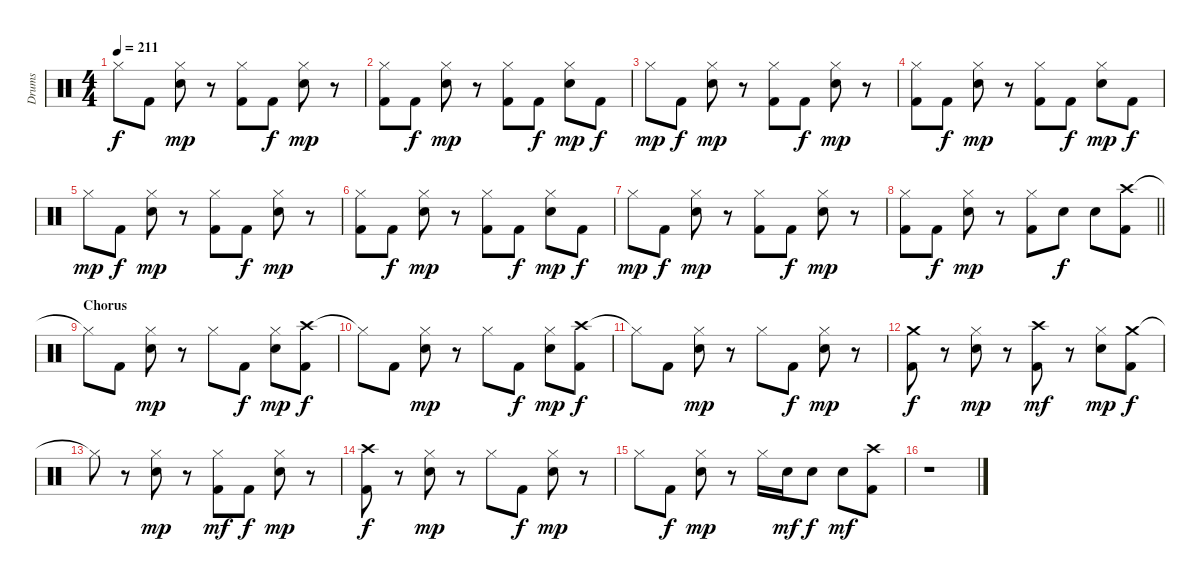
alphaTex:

\track ("Drums" "Drums") {instrument percussion}
\staff {score}
\articulation defaults
\ts (4 4)
\tempo 211
\clef neutral
\ks c "Hi-Hat (closed)"{t}.8{dy f} "Kick (hit) 2".8
("Hi-Hat (closed)" "Snare (hit) 2").8{dy mp} r.8 ("Hi-Hat (closed)" "Kick (hit) 2").8 "Kick (hit) 2".8{dy f} ("Hi-Hat (closed)" "Snare (hit) 2").8{dy mp} r.8 |
("Hi-Hat (closed)" "Kick (hit) 2").8 "Kick (hit) 2".8{dy f} ("Hi-Hat (closed)" "Snare (hit) 2").8{dy mp} r.8 ("Hi-Hat (closed)" "Kick (hit) 2").8 "Kick (hit) 2".8{dy f} ("Hi-Hat (closed)" "Snare (hit) 2").8{dy mp} "Kick (hit) 2".8{dy f} |
"Hi-Hat (closed)".8{dy mp} "Kick (hit) 2".8{dy f} ("Hi-Hat (closed)" "Snare (hit) 2").8{dy mp} r.8 ("Hi-Hat (closed)" "Kick (hit) 2").8 "Kick (hit) 2".8{dy f} ("Hi-Hat (closed)" "Snare (hit) 2").8{dy mp} r.8 |
("Hi-Hat (closed)" "Kick (hit) 2").8 "Kick (hit) 2".8{dy f} ("Hi-Hat (closed)" "Snare (hit) 2").8{dy mp} r.8 ("Hi-Hat (closed)" "Kick (hit) 2").8 "Kick (hit) 2".8{dy f} ("Hi-Hat (closed)" "Snare (hit) 2").8{dy mp} "Kick (hit) 2".8{dy f} |
"Hi-Hat (closed)".8{dy mp} "Kick (hit) 2".8{dy f} ("Hi-Hat (closed)" "Snare (hit) 2").8{dy mp} r.8 ("Hi-Hat (closed)" "Kick (hit) 2").8 "Kick (hit) 2".8{dy f} ("Hi-Hat (closed)" "Snare (hit) 2").8{dy mp} r.8 |
("Hi-Hat (closed)" "Kick (hit) 2").8 "Kick (hit) 2".8{dy f} ("Hi-Hat (closed)" "Snare (hit) 2").8{dy mp} r.8 ("Hi-Hat (closed)" "Kick (hit) 2").8 "Kick (hit) 2".8{dy f} ("Hi-Hat (closed)" "Snare (hit) 2").8{dy mp} "Kick (hit) 2".8{dy f} |
"Hi-Hat (closed)".8{dy mp} "Kick (hit) 2".8{dy f} ("Hi-Hat (closed)" "Snare (hit) 2").8{dy mp} r.8 ("Hi-Hat (closed)" "Kick (hit) 2").8 "Kick (hit) 2".8{dy f} ("Hi-Hat (closed)" "Snare (hit) 2").8{dy mp} r.8 |
\barLineRight lightlight
("Hi-Hat (closed)" "Kick (hit) 2").8 "Kick (hit) 2".8{dy f} ("Hi-Hat (closed)" "Snare (hit) 2").8{dy mp} r.8 ("Hi-Hat (closed)" "Kick (hit) 2").8 "Snare (hit) 2".8{dy f} "Snare (hit) 2".8 ("Crash high (hit)" "Kick (hit) 2").8 |
\section ("" "Chorus")
"Hi-Hat (closed)"{t}.8 "Kick (hit) 2".8 ("Hi-Hat (closed)" "Snare (hit) 2").8{dy mp} r.8 "Hi-Hat (closed)".8 "Kick (hit) 2".8{dy f} ("Hi-Hat (closed)" "Snare (hit) 2").8{dy mp} ("Crash high (hit)" "Kick (hit) 2").8{dy f} |
"Hi-Hat (closed)"{t}.8 "Kick (hit) 2".8 ("Hi-Hat (closed)" "Snare (hit) 2").8{dy mp} r.8 "Hi-Hat (closed)".8 "Kick (hit) 2".8{dy f} ("Hi-Hat (closed)" "Snare (hit) 2").8{dy mp} ("Crash high (hit)" "Kick (hit) 2").8{dy f} |
"Hi-Hat (closed)"{t}.8 "Kick (hit) 2".8 ("Hi-Hat (closed)" "Snare (hit) 2").8{dy mp} r.8 "Hi-Hat (closed)".8 "Kick (hit) 2".8{dy f} ("Hi-Hat (closed)" "Snare (hit) 2").8{dy mp} r.8 |
("Crash medium (hit)" "Kick (hit) 2").8{dy f} r.8 ("Hi-Hat (closed)" "Snare (hit) 2").8{dy mp} r.8 ("Crash high (hit)" "Kick (hit) 2").8{dy mf} r.8 ("Hi-Hat (closed)" "Snare (hit) 2").8{dy mp} ("Crash medium (hit)" "Kick (hit) 2").8{dy f} |
"Hi-Hat (closed)"{t}.8 r.8 ("Hi-Hat (closed)" "Snare (hit) 2").8{dy mp} r.8 ("Hi-Hat (closed)" "Kick (hit) 2").8{dy mf} "Kick (hit) 2".8{dy f} ("Hi-Hat (closed)" "Snare (hit) 2").8{dy mp} r.8 |
("Crash high (hit)" "Kick (hit) 2").8{dy f} r.8 ("Hi-Hat (closed)" "Snare (hit) 2").8{dy mp} r.8 "Hi-Hat (closed)".8 "Kick (hit) 2".8{dy f} ("Hi-Hat (closed)" "Snare (hit) 2").8{dy mp} r.8 |
"Hi-Hat (closed)".8 "Kick (hit) 2".8{dy f} ("Hi-Hat (closed)" "Snare (hit) 2").8{dy mp} r.8 "Hi-Hat (closed)".16 "Snare (hit) 2".16{dy mf} "Snare (hit) 2".8{dy f} "Snare (hit) 2".8{dy mf} ("Crash high (hit)" "Kick (hit) 2").8 |
r.1
